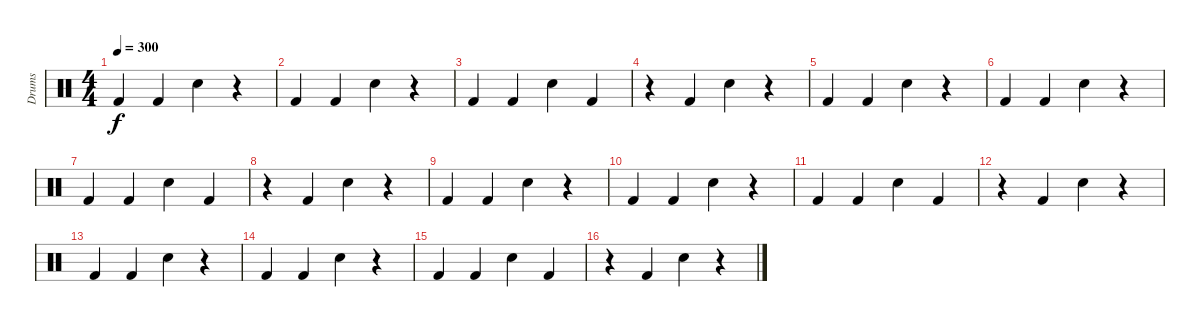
\track ("Drums" "Drums") {instrument percussion}
\staff {score}
\articulation defaults
\ts (4 4)
\tempo 300
\clef neutral
\ks c "Kick (hit) 2".4{dy f} "Kick (hit) 2".4 "Snare (hit) 2".4
r.4 |
"Kick (hit) 2".4 "Kick (hit) 2".4 "Snare (hit) 2".4 r.4 |
"Kick (hit) 2".4 "Kick (hit) 2".4 "Snare (hit) 2".4 "Kick (hit) 2".4 |
r.4 "Kick (hit) 2".4 "Snare (hit) 2".4 r.4 |
"Kick (hit) 2".4 "Kick (hit) 2".4 "Snare (hit) 2".4 r.4 |
"Kick (hit) 2".4 "Kick (hit) 2".4 "Snare (hit) 2".4 r.4 |
"Kick (hit) 2".4 "Kick (hit) 2".4 "Snare (hit) 2".4 "Kick (hit) 2".4 |
r.4 "Kick (hit) 2".4 "Snare (hit) 2".4 r.4 |
"Kick (hit) 2".4 "Kick (hit) 2".4 "Snare (hit) 2".4 r.4 |
"Kick (hit) 2".4 "Kick (hit) 2".4 "Snare (hit) 2".4 r.4 |
"Kick (hit) 2".4 "Kick (hit) 2".4 "Snare (hit) 2".4 "Kick (hit) 2".4 |
r.4 "Kick (hit) 2".4 "Snare (hit) 2".4 r.4 |
"Kick (hit) 2".4 "Kick (hit) 2".4 "Snare (hit) 2".4 r.4 |
"Kick (hit) 2".4 "Kick (hit) 2".4 "Snare (hit) 2".4 r.4 |
"Kick (hit) 2".4 "Kick (hit) 2".4 "Snare (hit) 2".4 "Kick (hit) 2".4 |
r.4 "Kick (hit) 2".4 "Snare (hit) 2".4 r.4
